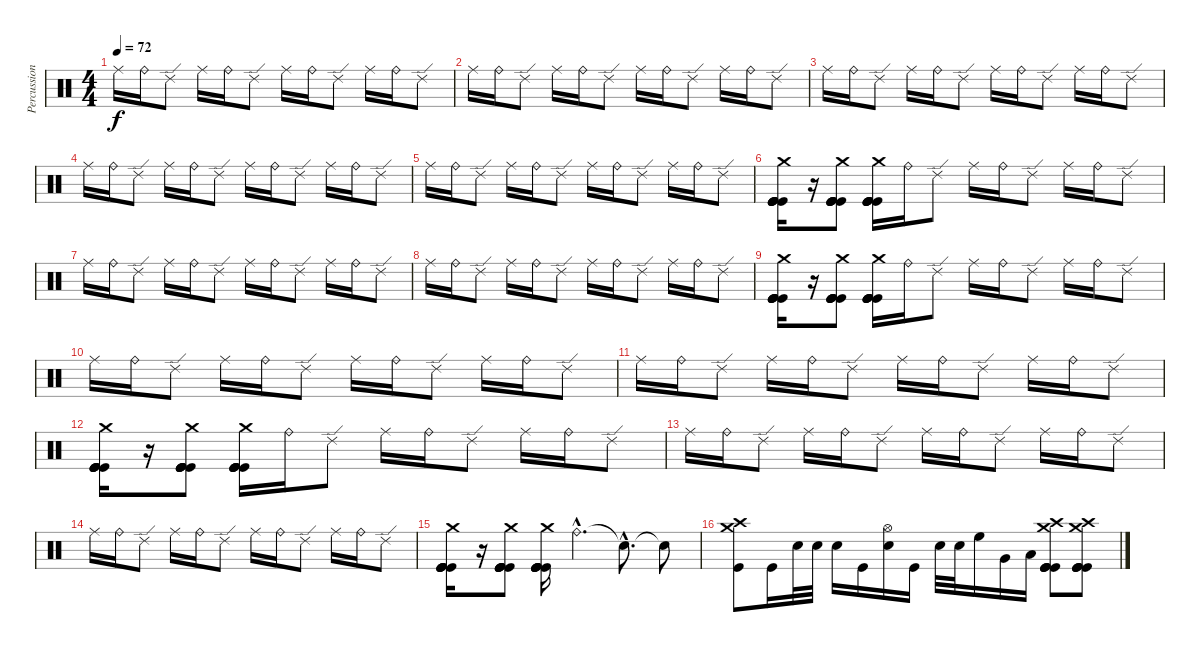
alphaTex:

\track ("Percussions" "Percussion") {instrument percussion}
\staff {score}
\articulation defaults
\ts (4 4)
\tempo 72
\clef neutral
\ks c "Ride (middle)".16{dy f} "Ride (bell)".16 "Ride (edge) 2".8 "Ride (middle)".16 "Ride (bell)".16 "Ride (edge) 2".8 "Ride (middle)".16 "Ride (bell)".16 "Ride (edge) 2".8 "Ride (middle)".16 "Ride (bell)".16 "Ride (edge) 2".8
|
"Ride (middle)".16 "Ride (bell)".16 "Ride (edge) 2".8 "Ride (middle)".16 "Ride (bell)".16 "Ride (edge) 2".8 "Ride (middle)".16 "Ride (bell)".16 "Ride (edge) 2".8 "Ride (middle)".16 "Ride (bell)".16 "Ride (edge) 2".8 |
"Ride (middle)".16 "Ride (bell)".16 "Ride (edge) 2".8 "Ride (middle)".16 "Ride (bell)".16 "Ride (edge) 2".8 "Ride (middle)".16 "Ride (bell)".16 "Ride (edge) 2".8 "Ride (middle)".16 "Ride (bell)".16 "Ride (edge) 2".8 |
"Ride (middle)".16 "Ride (bell)".16 "Ride (edge) 2".8 "Ride (middle)".16 "Ride (bell)".16 "Ride (edge) 2".8 "Ride (middle)".16 "Ride (bell)".16 "Ride (edge) 2".8 "Ride (middle)".16 "Ride (bell)".16 "Ride (edge) 2".8 |
"Ride (middle)".16 "Ride (bell)".16 "Ride (edge) 2".8 "Ride (middle)".16 "Ride (bell)".16 "Ride (edge) 2".8 "Ride (middle)".16 "Ride (bell)".16 "Ride (edge) 2".8 "Ride (middle)".16 "Ride (bell)".16 "Ride (edge) 2".8 |
("Crash medium (hit)" "Kick (hit)" "Kick (hit)" "Kick (hit)" "Kick (hit)" "Kick (hit)").16 r.16 ("Crash medium (hit)" "Kick (hit)" "Kick (hit)" "Kick (hit)" "Kick (hit)" "Kick (hit)").8 ("Crash medium (hit)" "Kick (hit)" "Kick (hit)" "Kick (hit)" "Kick (hit)" "Kick (hit)").16 "Ride (bell)".16 "Ride (edge) 2".8 "Ride (middle)".16 "Ride (bell)".16 "Ride (edge) 2".8 "Ride (middle)".16 "Ride (bell)".16 "Ride (edge) 2".8 |
"Ride (middle)".16 "Ride (bell)".16 "Ride (edge) 2".8 "Ride (middle)".16 "Ride (bell)".16 "Ride (edge) 2".8 "Ride (middle)".16 "Ride (bell)".16 "Ride (edge) 2".8 "Ride (middle)".16 "Ride (bell)".16 "Ride (edge) 2".8 |
"Ride (middle)".16 "Ride (bell)".16 "Ride (edge) 2".8 "Ride (middle)".16 "Ride (bell)".16 "Ride (edge) 2".8 "Ride (middle)".16 "Ride (bell)".16 "Ride (edge) 2".8 "Ride (middle)".16 "Ride (bell)".16 "Ride (edge) 2".8 |
("Crash medium (hit)" "Kick (hit)" "Kick (hit)" "Kick (hit)" "Kick (hit)" "Kick (hit)").16 r.16 ("Crash medium (hit)" "Kick (hit)" "Kick (hit)" "Kick (hit)" "Kick (hit)" "Kick (hit)").8 ("Crash medium (hit)" "Kick (hit)" "Kick (hit)" "Kick (hit)" "Kick (hit)" "Kick (hit)").16 "Ride (bell)".16 "Ride (edge) 2".8 "Ride (middle)".16 "Ride (bell)".16 "Ride (edge) 2".8 "Ride (middle)".16 "Ride (bell)".16 "Ride (edge) 2".8 |
"Ride (middle)".16 "Ride (bell)".16 "Ride (edge) 2".8 "Ride (middle)".16 "Ride (bell)".16 "Ride (edge) 2".8 "Ride (middle)".16 "Ride (bell)".16 "Ride (edge) 2".8 "Ride (middle)".16 "Ride (bell)".16 "Ride (edge) 2".8 |
"Ride (middle)".16 "Ride (bell)".16 "Ride (edge) 2".8 "Ride (middle)".16 "Ride (bell)".16 "Ride (edge) 2".8 "Ride (middle)".16 "Ride (bell)".16 "Ride (edge) 2".8 "Ride (middle)".16 "Ride (bell)".16 "Ride (edge) 2".8 |
("Crash medium (hit)" "Kick (hit)" "Kick (hit)" "Kick (hit)" "Kick (hit)" "Kick (hit)").16 r.16 ("Crash medium (hit)" "Kick (hit)" "Kick (hit)" "Kick (hit)" "Kick (hit)" "Kick (hit)").8 ("Crash medium (hit)" "Kick (hit)" "Kick (hit)" "Kick (hit)" "Kick (hit)" "Kick (hit)").16 "Ride (bell)".16 "Ride (edge) 2".8 "Ride (middle)".16 "Ride (bell)".16 "Ride (edge) 2".8 "Ride (middle)".16 "Ride (bell)".16 "Ride (edge) 2".8 |
"Ride (middle)".16 "Ride (bell)".16 "Ride (edge) 2".8 "Ride (middle)".16 "Ride (bell)".16 "Ride (edge) 2".8 "Ride (middle)".16 "Ride (bell)".16 "Ride (edge) 2".8 "Ride (middle)".16 "Ride (bell)".16 "Ride (edge) 2".8 |
"Ride (middle)".16 "Ride (bell)".16 "Ride (edge) 2".8 "Ride (middle)".16 "Ride (bell)".16 "Ride (edge) 2".8 "Ride (middle)".16 "Ride (bell)".16 "Ride (edge) 2".8 "Ride (middle)".16 "Ride (bell)".16 "Ride (edge) 2".8 |
("Crash medium (hit)" "Kick (hit)" "Kick (hit)" "Kick (hit)" "Kick (hit)" "Kick (hit)").16 r.16 ("Crash medium (hit)" "Kick (hit)" "Kick (hit)" "Kick (hit)" "Kick (hit)" "Kick (hit)").8 ("Crash medium (hit)" "Kick (hit)" "Kick (hit)" "Kick (hit)" "Kick (hit)" "Kick (hit)").16 "Ride (bell)"{hac}.4{d} "Snare (hit)"{hac t}.8{d} "Snare (hit)"{t}.8 |
("Crash medium (hit)" "Crash high (hit)" "Kick (hit)").8 "Kick (hit)".16 "Electric Snare (hit)".32 "Snare (hit) 2".32 "Electric Snare (hit)".16 "Kick (hit)".16 ("Hi-Hat (open)" "Electric Snare (hit)").16 "Kick (hit)".16 "Electric Snare (hit)".32 "Snare (hit) 2".32 "High Floor Tom (hit)".16 "Very Low Tom (hit)".16 "Low Floor Tom (hit)".16 ("Crash medium (hit)" "Crash high (hit)" "Kick (hit)" "Kick (hit)" "Kick (hit)" "Kick (hit)").8 ("Crash medium (hit)" "Crash high (hit)" "Kick (hit)" "Kick (hit)" "Kick (hit)" "Kick (hit)").8
